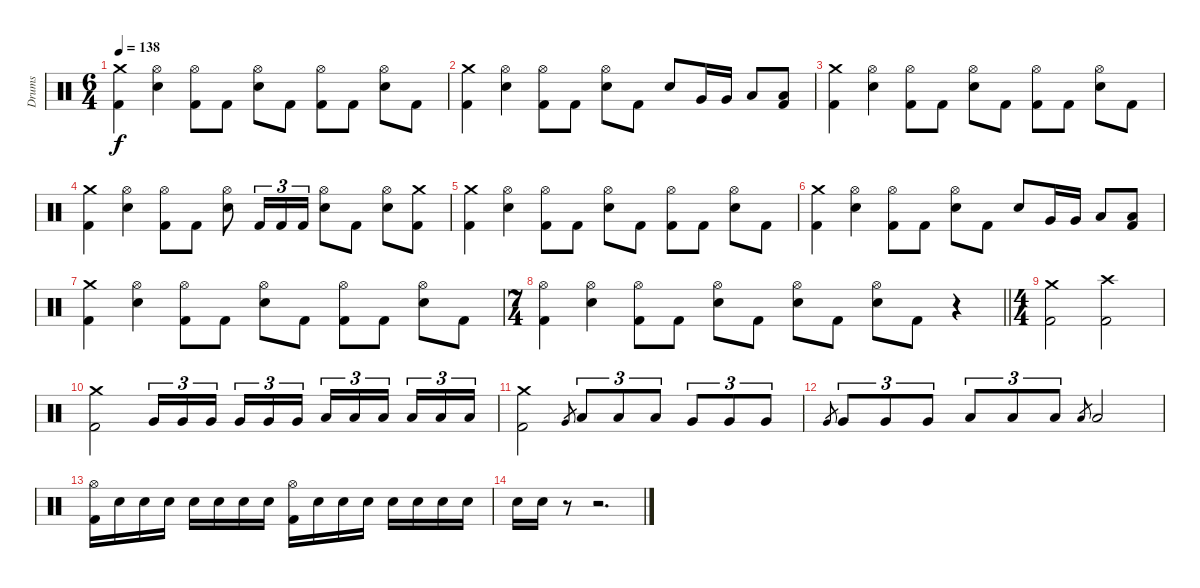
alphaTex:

\track ("Drums" "Drums") {instrument percussion}
\staff {score}
\articulation defaults
\ts (6 4)
\tempo 138
\clef neutral
\ks c
("Crash medium (hit)" "Kick (hit) 2").4{dy f} ("Hi-Hat (open)" "Electric Snare (hit)").4 ("Hi-Hat (open)" "Kick (hit) 2").8 "Kick (hit) 2".8 ("Hi-Hat (open)" "Electric Snare (hit)").8 "Kick (hit) 2".8 ("Hi-Hat (open)" "Kick (hit) 2").8 "Kick (hit) 2".8 ("Hi-Hat (open)" "Electric Snare (hit)").8 "Kick (hit) 2".8 |
("Crash medium (hit)" "Kick (hit) 2").4 ("Hi-Hat (open)" "Electric Snare (hit)").4 ("Hi-Hat (open)" "Kick (hit) 2").8 "Kick (hit) 2".8 ("Hi-Hat (open)" "Electric Snare (hit)").8 "Kick (hit) 2".8 "Electric Snare (hit)".8 "Very Low Tom (hit)".16 "Very Low Tom (hit)".16 "Low Floor Tom (hit)".8 ("Low Floor Tom (hit)" "Kick (hit) 2").8 |
("Crash medium (hit)" "Kick (hit) 2").4 ("Hi-Hat (open)" "Electric Snare (hit)").4 ("Hi-Hat (open)" "Kick (hit) 2").8 "Kick (hit) 2".8 ("Hi-Hat (open)" "Electric Snare (hit)").8 "Kick (hit) 2".8 ("Hi-Hat (open)" "Kick (hit) 2").8 "Kick (hit) 2".8 ("Hi-Hat (open)" "Electric Snare (hit)").8 "Kick (hit) 2".8 |
("Crash medium (hit)" "Kick (hit) 2").4 ("Hi-Hat (open)" "Electric Snare (hit)").4 ("Hi-Hat (open)" "Kick (hit) 2").8 "Kick (hit) 2".8 ("Hi-Hat (open)" "Electric Snare (hit)").8 "Kick (hit) 2".16{tu (3 2)} "Kick (hit) 2".16{tu (3 2)} "Kick (hit) 2".16{tu (3 2)} ("Hi-Hat (open)" "Electric Snare (hit)").8 "Kick (hit) 2".8 ("Hi-Hat (open)" "Electric Snare (hit)").8 ("Crash medium (hit)" "Kick (hit) 2").8 |
("Crash medium (hit)" "Kick (hit) 2").4 ("Hi-Hat (open)" "Electric Snare (hit)").4 ("Hi-Hat (open)" "Kick (hit) 2").8 "Kick (hit) 2".8 ("Hi-Hat (open)" "Electric Snare (hit)").8 "Kick (hit) 2".8 ("Hi-Hat (open)" "Kick (hit) 2").8 "Kick (hit) 2".8 ("Hi-Hat (open)" "Electric Snare (hit)").8 "Kick (hit) 2".8 |
("Crash medium (hit)" "Kick (hit) 2").4 ("Hi-Hat (open)" "Electric Snare (hit)").4 ("Hi-Hat (open)" "Kick (hit) 2").8 "Kick (hit) 2".8 ("Hi-Hat (open)" "Electric Snare (hit)").8 "Kick (hit) 2".8 "Electric Snare (hit)".8 "Very Low Tom (hit)".16 "Very Low Tom (hit)".16 "Low Floor Tom (hit)".8 ("Low Floor Tom (hit)" "Kick (hit) 2").8 |
("Crash medium (hit)" "Kick (hit) 2").4 ("Hi-Hat (open)" "Electric Snare (hit)").4 ("Hi-Hat (open)" "Kick (hit) 2").8 "Kick (hit) 2".8 ("Hi-Hat (open)" "Electric Snare (hit)").8 "Kick (hit) 2".8 ("Hi-Hat (open)" "Kick (hit) 2").8 "Kick (hit) 2".8 ("Hi-Hat (open)" "Electric Snare (hit)").8 "Kick (hit) 2".8 |
\ts (7 4)
\barLineRight lightlight
("Hi-Hat (open)" "Kick (hit) 2").4 ("Hi-Hat (open)" "Electric Snare (hit)").4 ("Hi-Hat (open)" "Kick (hit) 2").8 "Kick (hit) 2".8 ("Hi-Hat (open)" "Electric Snare (hit)").8 "Kick (hit) 2".8 ("Hi-Hat (open)" "Electric Snare (hit)").8 "Kick (hit) 2".8 ("Hi-Hat (open)" "Electric Snare (hit)").8 "Kick (hit) 2".8 r.4 |
\ts (4 4)
("Crash medium (hit)" "Kick (hit) 2").2 ("Crash high (hit)" "Kick (hit) 2").2 |
("Crash medium (hit)" "Kick (hit) 2").2 "Very Low Tom (hit)".16{tu (3 2)} "Very Low Tom (hit)".16{tu (3 2)} "Very Low Tom (hit)".16{tu (3 2) beam splitsecondary} "Very Low Tom (hit)".16{tu (3 2)} "Very Low Tom (hit)".16{tu (3 2)} "Very Low Tom (hit)".16{tu (3 2)} "Low Floor Tom (hit)".16{tu (3 2)} "Low Floor Tom (hit)".16{tu (3 2)} "Low Floor Tom (hit)".16{tu (3 2) beam splitsecondary} "Low Floor Tom (hit)".16{tu (3 2)} "Low Floor Tom (hit)".16{tu (3 2)} "Low Floor Tom (hit)".16{tu (3 2)} |
("Crash medium (hit)" "Kick (hit) 2").2 "Very Low Tom (hit)".8{gr} "Low Tom (hit)".8{tu (3 2)} "Low Tom (hit)".8{tu (3 2)} "Low Tom (hit)".8{tu (3 2)} "Very Low Tom (hit)".8{tu (3 2)} "Very Low Tom (hit)".8{tu (3 2)} "Very Low Tom (hit)".8{tu (3 2)} |
"Very Low Tom (hit)".8{gr} "Very Low Tom (hit)".8{tu (3 2)} "Very Low Tom (hit)".8{tu (3 2)} "Very Low Tom (hit)".8{tu (3 2)} "Low Floor Tom (hit)".8{tu (3 2)} "Low Floor Tom (hit)".8{tu (3 2)} "Low Floor Tom (hit)".8{tu (3 2)} "Low Floor Tom (hit)".8{gr} "Low Floor Tom (hit)".2 |
("Hi-Hat (open)" "Kick (hit) 2").16 "Electric Snare (hit)".16 "Electric Snare (hit)".16 "Electric Snare (hit)".16 "Electric Snare (hit)".16 "Electric Snare (hit)".16 "Electric Snare (hit)".16 "Electric Snare (hit)".16 ("Hi-Hat (open)" "Kick (hit) 2").16 "Electric Snare (hit)".16 "Electric Snare (hit)".16 "Electric Snare (hit)".16 "Electric Snare (hit)".16 "Electric Snare (hit)".16 "Electric Snare (hit)".16 "Electric Snare (hit)".16 |
"Electric Snare (hit)".16 "Electric Snare (hit)".16 r.8 r.2{d}
